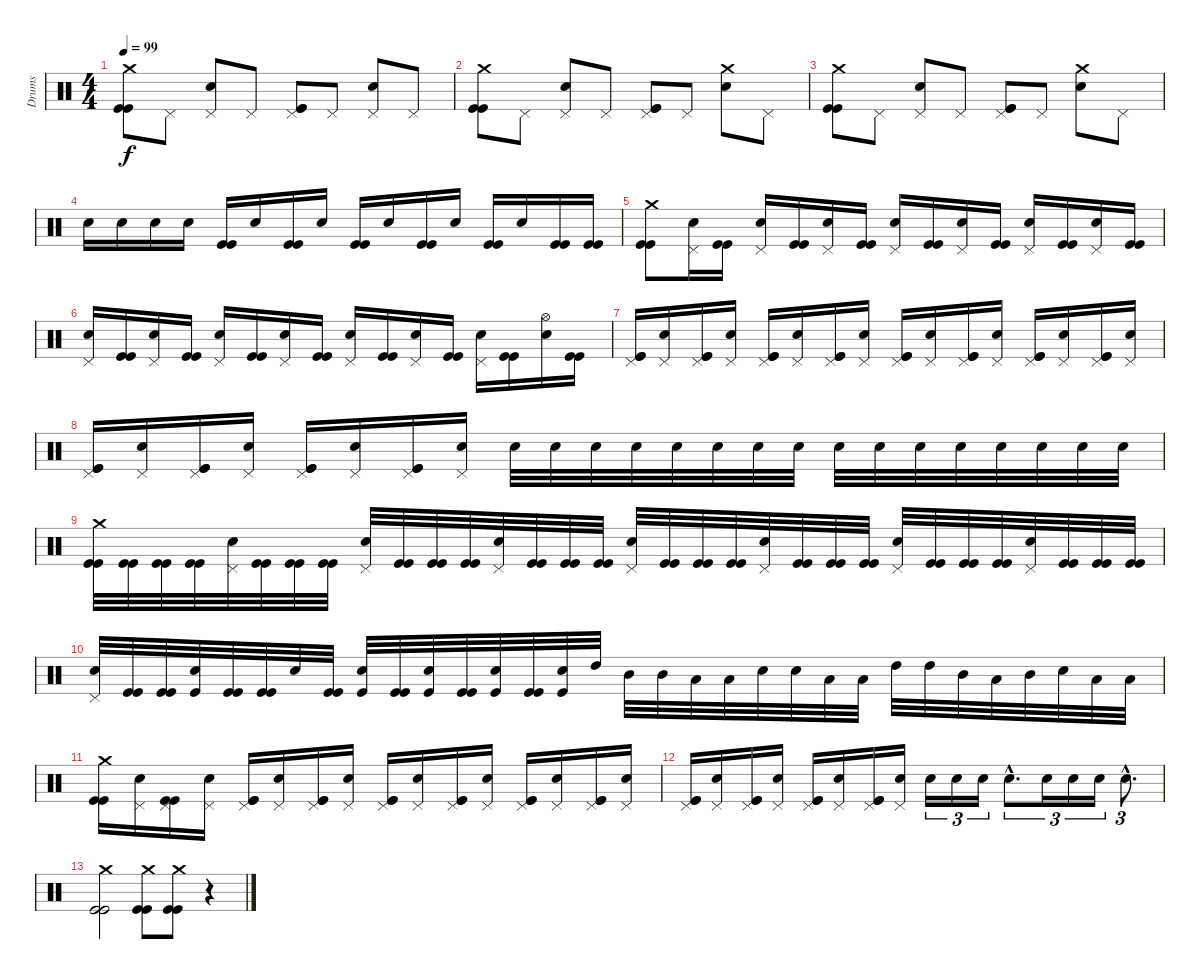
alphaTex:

\track ("Drums" "Drums") {instrument percussion}
\staff {score}
\articulation defaults
\ts (4 4)
\tempo 99
\clef neutral
\ks c
("Crash medium (hit)" "Kick (hit)" "Kick (hit)").8{dy f} "Pedal Hi-Hat (hit)".8 ("Pedal Hi-Hat (hit)" "Snare (hit) 2").8 "Pedal Hi-Hat (hit)".8 ("Pedal Hi-Hat (hit)" "Kick (hit)" "Kick (hit)").8 "Pedal Hi-Hat (hit)".8 ("Pedal Hi-Hat (hit)" "Snare (hit) 2").8 "Pedal Hi-Hat (hit)".8 |
("Crash medium (hit)" "Kick (hit)" "Kick (hit)").8 "Pedal Hi-Hat (hit)".8 ("Pedal Hi-Hat (hit)" "Snare (hit) 2").8 "Pedal Hi-Hat (hit)".8 ("Pedal Hi-Hat (hit)" "Kick (hit)" "Kick (hit)").8 "Pedal Hi-Hat (hit)".8 ("Crash medium (hit)" "Snare (hit) 2").8 "Pedal Hi-Hat (hit)".8 |
("Crash medium (hit)" "Kick (hit)" "Kick (hit)").8 "Pedal Hi-Hat (hit)".8 ("Pedal Hi-Hat (hit)" "Snare (hit) 2").8 "Pedal Hi-Hat (hit)".8 ("Pedal Hi-Hat (hit)" "Kick (hit)" "Kick (hit)").8 "Pedal Hi-Hat (hit)".8 ("Crash medium (hit)" "Snare (hit) 2").8 "Pedal Hi-Hat (hit)".8 |
"Snare (hit) 2".16 "Snare (hit) 2".16 "Snare (hit) 2".16 "Snare (hit) 2".16 ("Kick (hit)" "Kick (hit)").16 "Snare (hit) 2".16 ("Kick (hit)" "Kick (hit)").16 "Snare (hit) 2".16 ("Kick (hit)" "Kick (hit)").16 "Snare (hit) 2".16 ("Kick (hit)" "Kick (hit)").16 "Snare (hit) 2".16 ("Kick (hit)" "Kick (hit)").16 "Snare (hit) 2".16 ("Kick (hit)" "Kick (hit)").16 ("Kick (hit)" "Kick (hit)").16 |
("Crash medium (hit)" "Kick (hit)" "Kick (hit)").8 ("Pedal Hi-Hat (hit)" "Snare (hit) 2").16 ("Kick (hit)" "Kick (hit)").16 ("Pedal Hi-Hat (hit)" "Snare (hit) 2").16 ("Kick (hit)" "Kick (hit)").16 ("Pedal Hi-Hat (hit)" "Snare (hit) 2").16 ("Kick (hit)" "Kick (hit)").16 ("Pedal Hi-Hat (hit)" "Snare (hit) 2").16 ("Kick (hit)" "Kick (hit)").16 ("Pedal Hi-Hat (hit)" "Snare (hit) 2").16 ("Kick (hit)" "Kick (hit)").16 ("Pedal Hi-Hat (hit)" "Snare (hit) 2").16 ("Kick (hit)" "Kick (hit)").16 ("Pedal Hi-Hat (hit)" "Snare (hit) 2").16 ("Kick (hit)" "Kick (hit)").16 |
("Pedal Hi-Hat (hit)" "Snare (hit) 2").16 ("Kick (hit)" "Kick (hit)").16 ("Pedal Hi-Hat (hit)" "Snare (hit) 2").16 ("Kick (hit)" "Kick (hit)").16 ("Pedal Hi-Hat (hit)" "Snare (hit) 2").16 ("Kick (hit)" "Kick (hit)").16 ("Pedal Hi-Hat (hit)" "Snare (hit) 2").16 ("Kick (hit)" "Kick (hit)").16 ("Pedal Hi-Hat (hit)" "Snare (hit) 2").16 ("Kick (hit)" "Kick (hit)").16 ("Pedal Hi-Hat (hit)" "Snare (hit) 2").16 ("Kick (hit)" "Kick (hit)").16 ("Pedal Hi-Hat (hit)" "Snare (hit) 2").16 ("Kick (hit)" "Kick (hit)").16 ("Hi-Hat (open)" "Snare (hit) 2").16 ("Kick (hit)" "Kick (hit)").16 |
("Pedal Hi-Hat (hit)" "Kick (hit)" "Kick (hit)").16 ("Pedal Hi-Hat (hit)" "Snare (hit) 2").16 ("Pedal Hi-Hat (hit)" "Kick (hit)" "Kick (hit)").16 ("Pedal Hi-Hat (hit)" "Snare (hit) 2").16 ("Pedal Hi-Hat (hit)" "Kick (hit)" "Kick (hit)").16 ("Pedal Hi-Hat (hit)" "Snare (hit) 2").16 ("Pedal Hi-Hat (hit)" "Kick (hit)" "Kick (hit)").16 ("Pedal Hi-Hat (hit)" "Snare (hit) 2").16 ("Pedal Hi-Hat (hit)" "Kick (hit)" "Kick (hit)").16 ("Pedal Hi-Hat (hit)" "Snare (hit) 2").16 ("Pedal Hi-Hat (hit)" "Kick (hit)" "Kick (hit)").16 ("Pedal Hi-Hat (hit)" "Snare (hit) 2").16 ("Pedal Hi-Hat (hit)" "Kick (hit)" "Kick (hit)").16 ("Pedal Hi-Hat (hit)" "Snare (hit) 2").16 ("Pedal Hi-Hat (hit)" "Kick (hit)" "Kick (hit)").16 ("Pedal Hi-Hat (hit)" "Snare (hit) 2").16 |
("Pedal Hi-Hat (hit)" "Kick (hit)" "Kick (hit)").16 ("Pedal Hi-Hat (hit)" "Snare (hit) 2").16 ("Pedal Hi-Hat (hit)" "Kick (hit)" "Kick (hit)").16 ("Pedal Hi-Hat (hit)" "Snare (hit) 2").16 ("Pedal Hi-Hat (hit)" "Kick (hit)" "Kick (hit)").16 ("Pedal Hi-Hat (hit)" "Snare (hit) 2").16 ("Pedal Hi-Hat (hit)" "Kick (hit)" "Kick (hit)").16 ("Pedal Hi-Hat (hit)" "Snare (hit) 2").16 "Snare (hit) 2".32{volume 3} "Snare (hit) 2".32{volume 3} "Snare (hit) 2".32{volume 4} "Snare (hit) 2".32{volume 5} "Snare (hit) 2".32{volume 6} "Snare (hit) 2".32{volume 7} "Snare (hit) 2".32{volume 8} "Snare (hit) 2".32{volume 9} "Snare (hit) 2".32{volume 10} "Snare (hit) 2".32{volume 11} "Snare (hit) 2".32{volume 12} "Snare (hit) 2".32{volume 13} "Snare (hit) 2".32{volume 14} "Snare (hit) 2".32 "Snare (hit) 2".32 "Snare (hit) 2".32 |
("Crash medium (hit)" "Kick (hit)" "Kick (hit)").32 ("Kick (hit)" "Kick (hit)").32 ("Kick (hit)" "Kick (hit)").32 ("Kick (hit)" "Kick (hit)").32 ("Pedal Hi-Hat (hit)" "Snare (hit) 2").32 ("Kick (hit)" "Kick (hit)").32 ("Kick (hit)" "Kick (hit)").32 ("Kick (hit)" "Kick (hit)").32 ("Pedal Hi-Hat (hit)" "Snare (hit) 2").32 ("Kick (hit)" "Kick (hit)").32 ("Kick (hit)" "Kick (hit)").32 ("Kick (hit)" "Kick (hit)").32 ("Pedal Hi-Hat (hit)" "Snare (hit) 2").32 ("Kick (hit)" "Kick (hit)").32 ("Kick (hit)" "Kick (hit)").32 ("Kick (hit)" "Kick (hit)").32 ("Pedal Hi-Hat (hit)" "Snare (hit) 2").32 ("Kick (hit)" "Kick (hit)").32 ("Kick (hit)" "Kick (hit)").32 ("Kick (hit)" "Kick (hit)").32 ("Pedal Hi-Hat (hit)" "Snare (hit) 2").32 ("Kick (hit)" "Kick (hit)").32 ("Kick (hit)" "Kick (hit)").32 ("Kick (hit)" "Kick (hit)").32 ("Pedal Hi-Hat (hit)" "Snare (hit) 2").32 ("Kick (hit)" "Kick (hit)").32 ("Kick (hit)" "Kick (hit)").32 ("Kick (hit)" "Kick (hit)").32 ("Pedal Hi-Hat (hit)" "Snare (hit) 2").32 ("Kick (hit)" "Kick (hit)").32 ("Kick (hit)" "Kick (hit)").32 ("Kick (hit)" "Kick (hit)").32 |
("Pedal Hi-Hat (hit)" "Snare (hit) 2").32 ("Kick (hit)" "Kick (hit)").32 ("Kick (hit)" "Kick (hit)").32 ("Snare (hit) 2" "Kick (hit)").32 ("Kick (hit)" "Kick (hit)").32 ("Kick (hit)" "Kick (hit)").32 "Snare (hit) 2".32 ("Kick (hit)" "Kick (hit)").32 ("Snare (hit) 2" "Kick (hit)").32 ("Kick (hit)" "Kick (hit)").32 ("Snare (hit) 2" "Kick (hit)").32 ("Kick (hit)" "Kick (hit)").32 ("Snare (hit) 2" "Kick (hit)").32 ("Kick (hit)" "Kick (hit)").32 ("Snare (hit) 2" "Kick (hit)").32 "High Tom (hit)".32 "Mid Tom (hit)".32 "Mid Tom (hit)".32 "Low Tom (hit)".32 "Low Tom (hit)".32 "Snare (hit) 2".32 "Snare (hit) 2".32 "Low Tom (hit)".32 "Low Tom (hit)".32 "High Tom (hit)".32 "High Tom (hit)".32 "Mid Tom (hit)".32 "Low Tom (hit)".32 "Mid Tom (hit)".32 "Snare (hit) 2".32 "Low Tom (hit)".32 "Low Tom (hit)".32 |
("Crash medium (hit)" "Kick (hit)" "Kick (hit)").16 ("Pedal Hi-Hat (hit)" "Snare (hit) 2").16 ("Pedal Hi-Hat (hit)" "Kick (hit)" "Kick (hit)").16 ("Pedal Hi-Hat (hit)" "Snare (hit) 2").16 ("Pedal Hi-Hat (hit)" "Kick (hit)" "Kick (hit)").16 ("Pedal Hi-Hat (hit)" "Snare (hit) 2").16 ("Pedal Hi-Hat (hit)" "Kick (hit)" "Kick (hit)").16 ("Pedal Hi-Hat (hit)" "Snare (hit) 2").16 ("Pedal Hi-Hat (hit)" "Kick (hit)" "Kick (hit)").16 ("Pedal Hi-Hat (hit)" "Snare (hit) 2").16 ("Pedal Hi-Hat (hit)" "Kick (hit)" "Kick (hit)").16 ("Pedal Hi-Hat (hit)" "Snare (hit) 2").16 ("Pedal Hi-Hat (hit)" "Kick (hit)" "Kick (hit)").16 ("Pedal Hi-Hat (hit)" "Snare (hit) 2").16 ("Pedal Hi-Hat (hit)" "Kick (hit)" "Kick (hit)").16 ("Pedal Hi-Hat (hit)" "Snare (hit) 2").16 |
("Pedal Hi-Hat (hit)" "Kick (hit)" "Kick (hit)").16 ("Pedal Hi-Hat (hit)" "Snare (hit) 2").16 ("Pedal Hi-Hat (hit)" "Kick (hit)" "Kick (hit)").16 ("Pedal Hi-Hat (hit)" "Snare (hit) 2").16 ("Pedal Hi-Hat (hit)" "Kick (hit)" "Kick (hit)").16 ("Pedal Hi-Hat (hit)" "Snare (hit) 2").16 ("Pedal Hi-Hat (hit)" "Kick (hit)" "Kick (hit)").16 ("Pedal Hi-Hat (hit)" "Snare (hit) 2").16 "Snare (hit) 2".16{tu (3 2)} "Snare (hit) 2".16{tu (3 2)} "Snare (hit) 2".16{tu (3 2)} "Snare (hit) 2"{hac}.8{d tu (3 2)} "Snare (hit) 2".16{tu (3 2)} "Snare (hit) 2".16{tu (3 2)} "Snare (hit) 2".16{tu (3 2)} "Snare (hit) 2"{hac}.8{d tu (3 2)} |
("Crash medium (hit)" "Kick (hit)" "Kick (hit)").2 ("Crash medium (hit)" "Kick (hit)" "Kick (hit)").8 ("Crash medium (hit)" "Kick (hit)" "Kick (hit)").8 r.4
